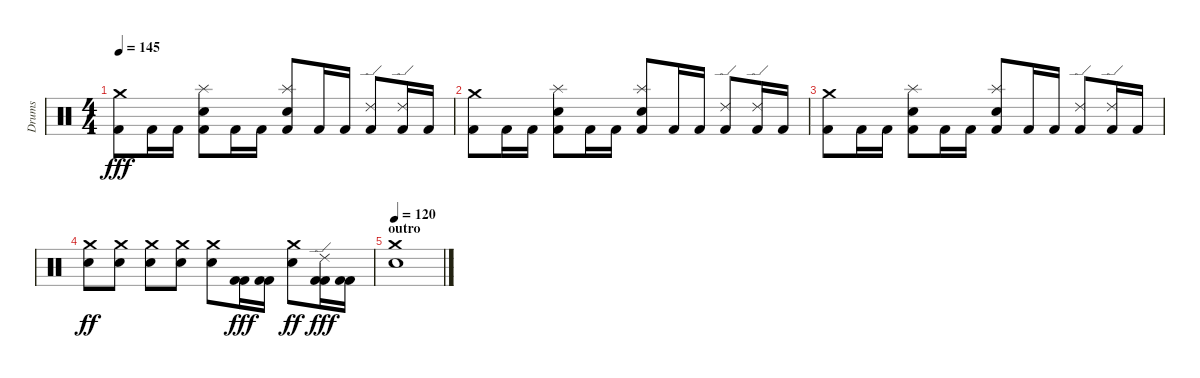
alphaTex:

\track ("Drums" "Drums") {instrument percussion}
\staff {score}
\articulation defaults
\ts (4 4)
\tempo 145
\clef neutral
\ks c
("Crash medium (hit)" "Kick (hit) 2").8{dy fff} "Kick (hit) 2".16 "Kick (hit) 2".16 ("Electric Snare (hit)" "Kick (hit) 2" "Splash (hit)").8{balance 0} "Kick (hit) 2".16{balance 8} "Kick (hit) 2".16 ("Snare (hit) 2" "Kick (hit) 2" "Splash (hit)").8{balance 16} "Kick (hit) 2".16{balance 8} "Kick (hit) 2".16 ("Ride (edge) 2" "Kick (hit) 2").8 ("Ride (edge) 2" "Kick (hit) 2").16 "Kick (hit) 2".16 |
("Crash medium (hit)" "Kick (hit) 2").8 "Kick (hit) 2".16 "Kick (hit) 2".16 ("Electric Snare (hit)" "Kick (hit) 2" "Splash (hit)").8{balance 0} "Kick (hit) 2".16{balance 8} "Kick (hit) 2".16 ("Snare (hit) 2" "Kick (hit) 2" "Splash (hit)").8{balance 16} "Kick (hit) 2".16{balance 8} "Kick (hit) 2".16 ("Ride (edge) 2" "Kick (hit) 2").8 ("Ride (edge) 2" "Kick (hit) 2").16 "Kick (hit) 2".16 |
("Crash medium (hit)" "Kick (hit) 2").8 "Kick (hit) 2".16 "Kick (hit) 2".16 ("Electric Snare (hit)" "Kick (hit) 2" "Splash (hit)").8{balance 0} "Kick (hit) 2".16{balance 8} "Kick (hit) 2".16 ("Snare (hit) 2" "Kick (hit) 2" "Splash (hit)").8{balance 16} "Kick (hit) 2".16{balance 8} "Kick (hit) 2".16 ("Ride (edge) 2" "Kick (hit) 2").8 ("Ride (edge) 2" "Kick (hit) 2").16 "Kick (hit) 2".16 |
("Crash medium (hit)" "Electric Snare (hit)").8{dy ff} ("Crash medium (hit)" "Electric Snare (hit)").8 ("Crash medium (hit)" "Electric Snare (hit)").8 ("Crash medium (hit)" "Electric Snare (hit)").8 ("Crash medium (hit)" "Electric Snare (hit)").8 ("Kick (hit) 2" "Kick (hit) 2").16{dy fff} ("Kick (hit) 2" "Kick (hit) 2").16 ("Crash medium (hit)" "Electric Snare (hit)").8{dy ff} ("Ride (edge) 2" "Kick (hit) 2" "Kick (hit) 2").16{dy fff} ("Kick (hit) 2" "Kick (hit) 2").16 |
\section ("" "outro")
\tempo 120
("Crash medium (hit)" "Electric Snare (hit)").1
